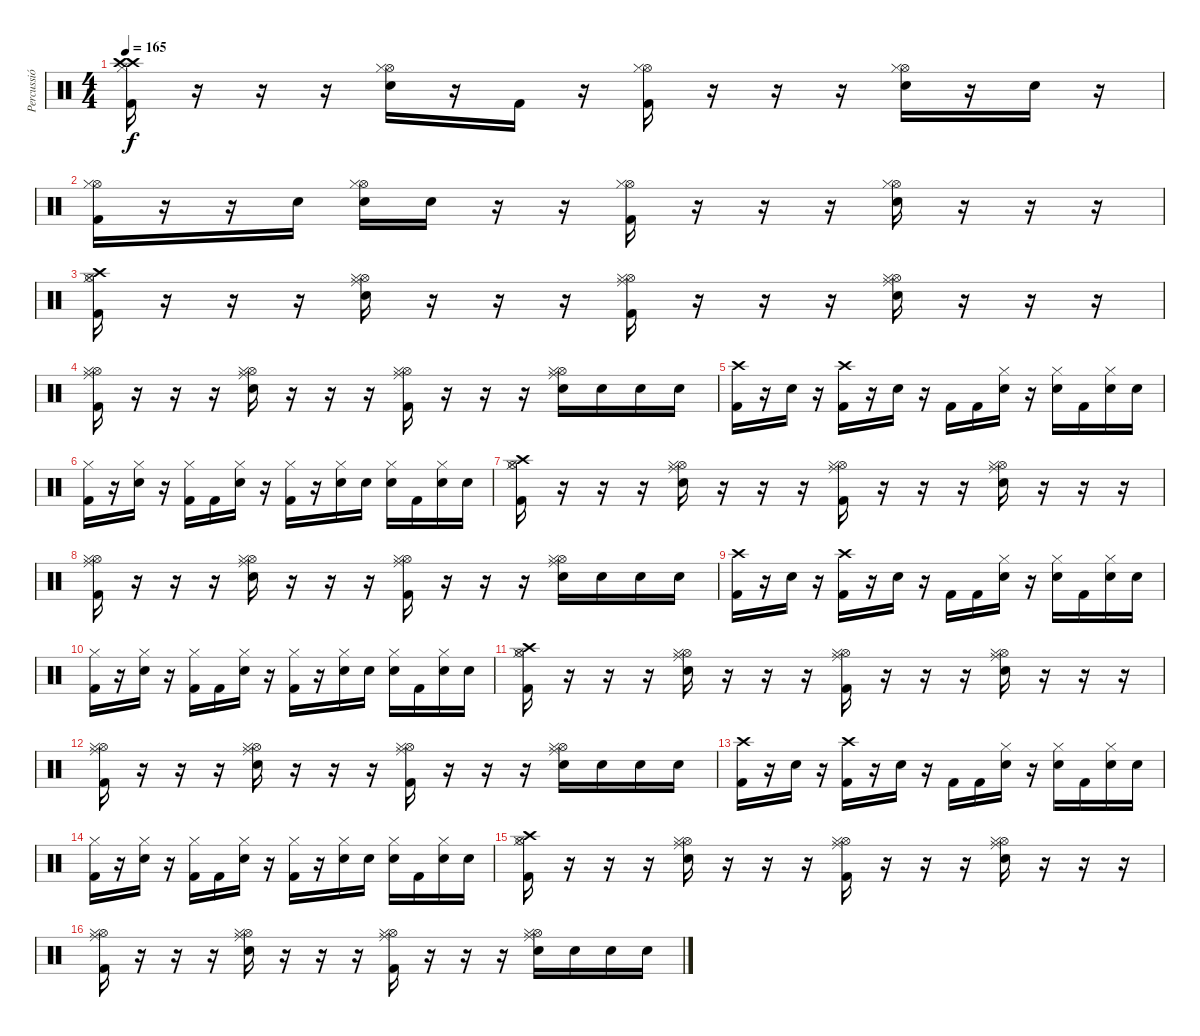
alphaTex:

\track ("Percussió" "Percussió") {instrument percussion}
\staff {score}
\articulation defaults
\ts (4 4)
\tempo 165
\clef neutral
\ks c
("Crash high (hit)" "Crash high (hit)" "Hi-Hat (closed)" "Kick (hit) 2").16{dy f} r.16 r.16 r.16 ("Hi-Hat (open)" "Hi-Hat (closed)" "Electric Snare (hit)").16 r.16 "Kick (hit) 2".16 r.16 ("Hi-Hat (open)" "Hi-Hat (closed)" "Kick (hit) 2").16 r.16 r.16 r.16 ("Hi-Hat (open)" "Hi-Hat (closed)" "Electric Snare (hit)").16 r.16 "Electric Snare (hit)".16 r.16 |
("Hi-Hat (open)" "Hi-Hat (closed)" "Kick (hit) 2").16 r.16 r.16 "Electric Snare (hit)".16 ("Hi-Hat (open)" "Hi-Hat (closed)" "Electric Snare (hit)").16 "Electric Snare (hit)".16 r.16 r.16 ("Hi-Hat (open)" "Hi-Hat (closed)" "Kick (hit) 2").16 r.16 r.16 r.16 ("Hi-Hat (open)" "Hi-Hat (closed)" "Electric Snare (hit)").16 r.16 r.16 r.16 |
("Crash high (hit)" "Hi-Hat (open)" "Hi-Hat (closed)" "Kick (hit) 2").16 r.16 r.16 r.16 ("Ride (middle)" "Hi-Hat (open)" "Hi-Hat (closed)" "Electric Snare (hit)").16 r.16 r.16 r.16 ("Ride (middle)" "Hi-Hat (open)" "Hi-Hat (closed)" "Kick (hit) 2").16 r.16 r.16 r.16 ("Ride (middle)" "Hi-Hat (open)" "Hi-Hat (closed)" "Electric Snare (hit)").16 r.16 r.16 r.16 |
("Ride (middle)" "Hi-Hat (open)" "Hi-Hat (closed)" "Kick (hit) 2").16 r.16 r.16 r.16 ("Ride (middle)" "Hi-Hat (open)" "Hi-Hat (closed)" "Electric Snare (hit)").16 r.16 r.16 r.16 ("Ride (middle)" "Hi-Hat (open)" "Hi-Hat (closed)" "Kick (hit) 2").16 r.16 r.16 r.16 ("Ride (middle)" "Hi-Hat (open)" "Hi-Hat (closed)" "Electric Snare (hit)").16 "Electric Snare (hit)".16 "Electric Snare (hit)".16 "Electric Snare (hit)".16 |
("Crash high (hit)" "Kick (hit) 2").16 r.16 "Electric Snare (hit)".16 r.16 ("Crash high (hit)" "Kick (hit) 2").16 r.16 "Electric Snare (hit)".16 r.16 "Kick (hit) 2".16 "Kick (hit) 2".16 ("Hi-Hat (closed)" "Electric Snare (hit)").16 r.16 ("Hi-Hat (closed)" "Electric Snare (hit)").16 "Kick (hit) 2".16 ("Hi-Hat (closed)" "Electric Snare (hit)").16 "Electric Snare (hit)".16 |
("Hi-Hat (closed)" "Kick (hit) 2").16 r.16 ("Hi-Hat (closed)" "Electric Snare (hit)").16 r.16 ("Hi-Hat (closed)" "Kick (hit) 2").16 "Kick (hit) 2".16 ("Hi-Hat (closed)" "Electric Snare (hit)").16 r.16 ("Hi-Hat (closed)" "Kick (hit) 2").16 r.16 ("Hi-Hat (closed)" "Electric Snare (hit)").16 "Electric Snare (hit)".16 ("Hi-Hat (closed)" "Electric Snare (hit)").16 "Kick (hit) 2".16 ("Hi-Hat (closed)" "Electric Snare (hit)").16 "Electric Snare (hit)".16 |
("Crash high (hit)" "Hi-Hat (open)" "Hi-Hat (closed)" "Kick (hit) 2").16 r.16 r.16 r.16 ("Ride (middle)" "Hi-Hat (open)" "Hi-Hat (closed)" "Electric Snare (hit)").16 r.16 r.16 r.16 ("Ride (middle)" "Hi-Hat (open)" "Hi-Hat (closed)" "Kick (hit) 2").16 r.16 r.16 r.16 ("Ride (middle)" "Hi-Hat (open)" "Hi-Hat (closed)" "Electric Snare (hit)").16 r.16 r.16 r.16 |
("Ride (middle)" "Hi-Hat (open)" "Hi-Hat (closed)" "Kick (hit) 2").16 r.16 r.16 r.16 ("Ride (middle)" "Hi-Hat (open)" "Hi-Hat (closed)" "Electric Snare (hit)").16 r.16 r.16 r.16 ("Ride (middle)" "Hi-Hat (open)" "Hi-Hat (closed)" "Kick (hit) 2").16 r.16 r.16 r.16 ("Ride (middle)" "Hi-Hat (open)" "Hi-Hat (closed)" "Electric Snare (hit)").16 "Electric Snare (hit)".16 "Electric Snare (hit)".16 "Electric Snare (hit)".16 |
("Crash high (hit)" "Kick (hit) 2").16 r.16 "Electric Snare (hit)".16 r.16 ("Crash high (hit)" "Kick (hit) 2").16 r.16 "Electric Snare (hit)".16 r.16 "Kick (hit) 2".16 "Kick (hit) 2".16 ("Hi-Hat (closed)" "Electric Snare (hit)").16 r.16 ("Hi-Hat (closed)" "Electric Snare (hit)").16 "Kick (hit) 2".16 ("Hi-Hat (closed)" "Electric Snare (hit)").16 "Electric Snare (hit)".16 |
("Hi-Hat (closed)" "Kick (hit) 2").16 r.16 ("Hi-Hat (closed)" "Electric Snare (hit)").16 r.16 ("Hi-Hat (closed)" "Kick (hit) 2").16 "Kick (hit) 2".16 ("Hi-Hat (closed)" "Electric Snare (hit)").16 r.16 ("Hi-Hat (closed)" "Kick (hit) 2").16 r.16 ("Hi-Hat (closed)" "Electric Snare (hit)").16 "Electric Snare (hit)".16 ("Hi-Hat (closed)" "Electric Snare (hit)").16 "Kick (hit) 2".16 ("Hi-Hat (closed)" "Electric Snare (hit)").16 "Electric Snare (hit)".16 |
("Crash high (hit)" "Hi-Hat (open)" "Hi-Hat (closed)" "Kick (hit) 2").16 r.16 r.16 r.16 ("Ride (middle)" "Hi-Hat (open)" "Hi-Hat (closed)" "Electric Snare (hit)").16 r.16 r.16 r.16 ("Ride (middle)" "Hi-Hat (open)" "Hi-Hat (closed)" "Kick (hit) 2").16 r.16 r.16 r.16 ("Ride (middle)" "Hi-Hat (open)" "Hi-Hat (closed)" "Electric Snare (hit)").16 r.16 r.16 r.16 |
("Ride (middle)" "Hi-Hat (open)" "Hi-Hat (closed)" "Kick (hit) 2").16 r.16 r.16 r.16 ("Ride (middle)" "Hi-Hat (open)" "Hi-Hat (closed)" "Electric Snare (hit)").16 r.16 r.16 r.16 ("Ride (middle)" "Hi-Hat (open)" "Hi-Hat (closed)" "Kick (hit) 2").16 r.16 r.16 r.16 ("Ride (middle)" "Hi-Hat (open)" "Hi-Hat (closed)" "Electric Snare (hit)").16 "Electric Snare (hit)".16 "Electric Snare (hit)".16 "Electric Snare (hit)".16 |
("Crash high (hit)" "Kick (hit) 2").16 r.16 "Electric Snare (hit)".16 r.16 ("Crash high (hit)" "Kick (hit) 2").16 r.16 "Electric Snare (hit)".16 r.16 "Kick (hit) 2".16 "Kick (hit) 2".16 ("Hi-Hat (closed)" "Electric Snare (hit)").16 r.16 ("Hi-Hat (closed)" "Electric Snare (hit)").16 "Kick (hit) 2".16 ("Hi-Hat (closed)" "Electric Snare (hit)").16 "Electric Snare (hit)".16 |
("Hi-Hat (closed)" "Kick (hit) 2").16 r.16 ("Hi-Hat (closed)" "Electric Snare (hit)").16 r.16 ("Hi-Hat (closed)" "Kick (hit) 2").16 "Kick (hit) 2".16 ("Hi-Hat (closed)" "Electric Snare (hit)").16 r.16 ("Hi-Hat (closed)" "Kick (hit) 2").16 r.16 ("Hi-Hat (closed)" "Electric Snare (hit)").16 "Electric Snare (hit)".16 ("Hi-Hat (closed)" "Electric Snare (hit)").16 "Kick (hit) 2".16 ("Hi-Hat (closed)" "Electric Snare (hit)").16 "Electric Snare (hit)".16 |
("Crash high (hit)" "Hi-Hat (open)" "Hi-Hat (closed)" "Kick (hit) 2").16 r.16 r.16 r.16 ("Ride (middle)" "Hi-Hat (open)" "Hi-Hat (closed)" "Electric Snare (hit)").16 r.16 r.16 r.16 ("Ride (middle)" "Hi-Hat (open)" "Hi-Hat (closed)" "Kick (hit) 2").16 r.16 r.16 r.16 ("Ride (middle)" "Hi-Hat (open)" "Hi-Hat (closed)" "Electric Snare (hit)").16 r.16 r.16 r.16 |
("Ride (middle)" "Hi-Hat (open)" "Hi-Hat (closed)" "Kick (hit) 2").16 r.16 r.16 r.16 ("Ride (middle)" "Hi-Hat (open)" "Hi-Hat (closed)" "Electric Snare (hit)").16 r.16 r.16 r.16 ("Ride (middle)" "Hi-Hat (open)" "Hi-Hat (closed)" "Kick (hit) 2").16 r.16 r.16 r.16 ("Ride (middle)" "Hi-Hat (open)" "Hi-Hat (closed)" "Electric Snare (hit)").16 "Electric Snare (hit)".16 "Electric Snare (hit)".16 "Electric Snare (hit)".16
